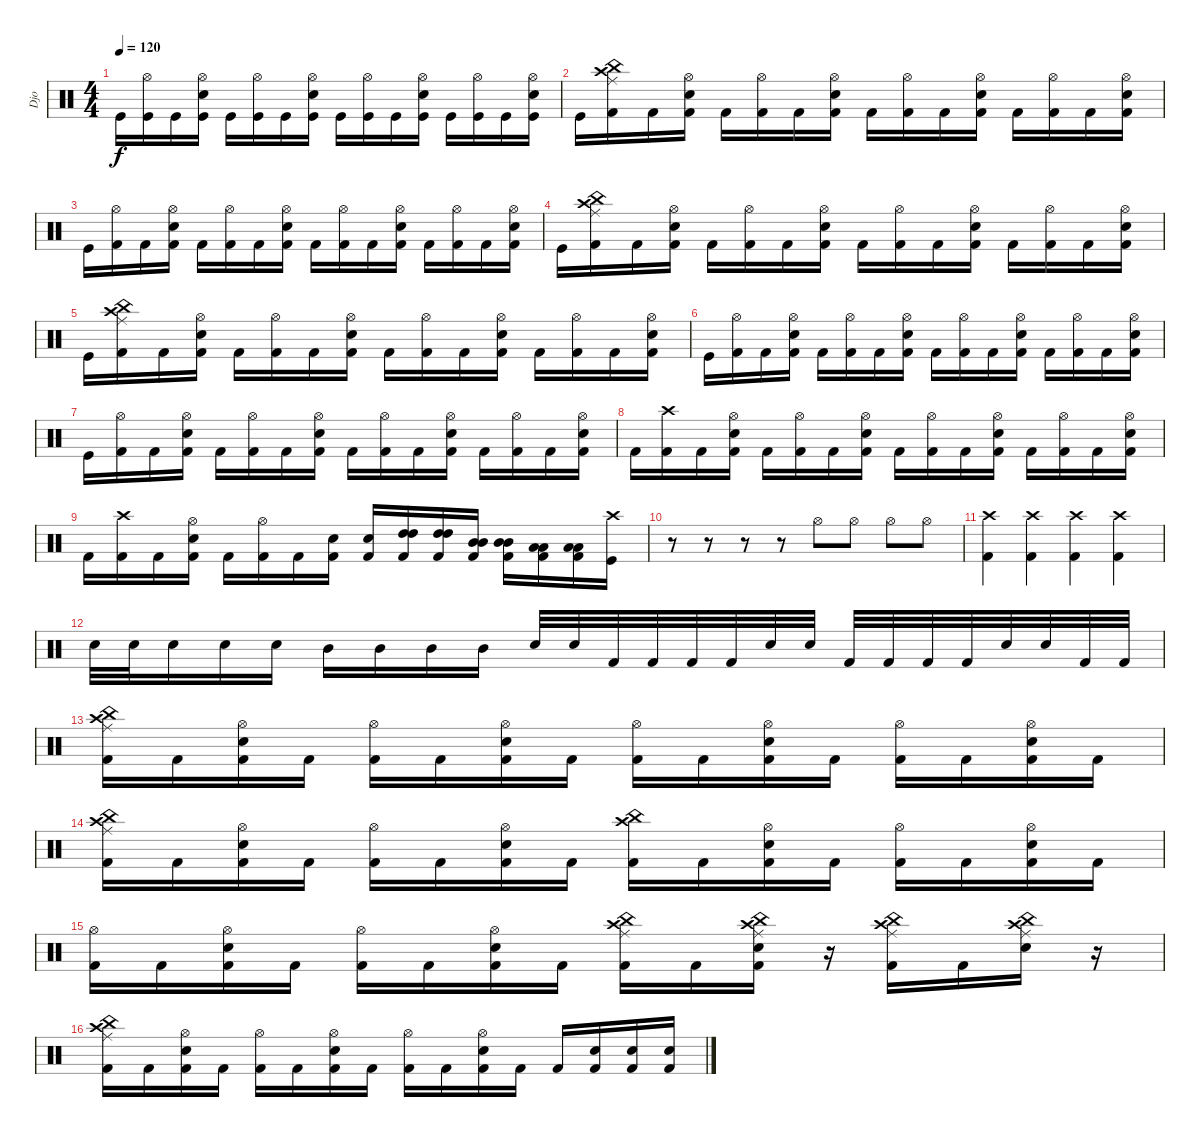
\track ("Djo" "Djo") {instrument percussion}
\staff {score}
\articulation defaults
\ts (4 4)
\tempo 120
\clef neutral
\ks c "Kick (hit)".16{dy f}
("Hi-Hat (open)" "Kick (hit)").16 "Kick (hit)".16 ("Hi-Hat (open)" "Snare (hit) 2" "Kick (hit)").16 "Kick (hit)".16 ("Hi-Hat (open)" "Kick (hit)").16 "Kick (hit)".16 ("Hi-Hat (open)" "Snare (hit) 2" "Kick (hit)").16 "Kick (hit)".16 ("Hi-Hat (open)" "Kick (hit)").16 "Kick (hit)".16 ("Hi-Hat (open)" "Snare (hit) 2" "Kick (hit)").16 "Kick (hit)".16 ("Hi-Hat (open)" "Kick (hit)").16 "Kick (hit)".16 ("Hi-Hat (open)" "Snare (hit) 2" "Kick (hit)").16 |
"Kick (hit)".16 ("Crash high (hit)" "China (hit)" "Ride (middle)" "Kick (hit) 2").16 "Kick (hit) 2".16 ("Hi-Hat (open)" "Electric Snare (hit)" "Kick (hit) 2").16 "Kick (hit) 2".16 ("Hi-Hat (open)" "Kick (hit) 2").16 "Kick (hit) 2".16 ("Hi-Hat (open)" "Electric Snare (hit)" "Kick (hit) 2").16 "Kick (hit) 2".16 ("Hi-Hat (open)" "Kick (hit) 2").16 "Kick (hit) 2".16 ("Hi-Hat (open)" "Electric Snare (hit)" "Kick (hit) 2").16 "Kick (hit) 2".16 ("Hi-Hat (open)" "Kick (hit) 2").16 "Kick (hit) 2".16 ("Hi-Hat (open)" "Electric Snare (hit)" "Kick (hit) 2").16 |
"Kick (hit)".16 ("Hi-Hat (open)" "Kick (hit) 2").16 "Kick (hit) 2".16 ("Hi-Hat (open)" "Electric Snare (hit)" "Kick (hit) 2").16 "Kick (hit) 2".16 ("Hi-Hat (open)" "Kick (hit) 2").16 "Kick (hit) 2".16 ("Hi-Hat (open)" "Electric Snare (hit)" "Kick (hit) 2").16 "Kick (hit) 2".16 ("Hi-Hat (open)" "Kick (hit) 2").16 "Kick (hit) 2".16 ("Hi-Hat (open)" "Electric Snare (hit)" "Kick (hit) 2").16 "Kick (hit) 2".16 ("Hi-Hat (open)" "Kick (hit) 2").16 "Kick (hit) 2".16 ("Hi-Hat (open)" "Electric Snare (hit)" "Kick (hit) 2").16 |
"Kick (hit)".16 ("Crash high (hit)" "China (hit)" "Ride (middle)" "Kick (hit) 2").16 "Kick (hit) 2".16 ("Hi-Hat (open)" "Electric Snare (hit)" "Kick (hit) 2").16 "Kick (hit) 2".16 ("Hi-Hat (open)" "Kick (hit) 2").16 "Kick (hit) 2".16 ("Hi-Hat (open)" "Electric Snare (hit)" "Kick (hit) 2").16 "Kick (hit) 2".16 ("Hi-Hat (open)" "Kick (hit) 2").16 "Kick (hit) 2".16 ("Hi-Hat (open)" "Electric Snare (hit)" "Kick (hit) 2").16 "Kick (hit) 2".16 ("Hi-Hat (open)" "Kick (hit) 2").16 "Kick (hit) 2".16 ("Hi-Hat (open)" "Electric Snare (hit)" "Kick (hit) 2").16 |
"Kick (hit)".16 ("Crash high (hit)" "China (hit)" "Ride (middle)" "Kick (hit) 2").16 "Kick (hit) 2".16 ("Hi-Hat (open)" "Electric Snare (hit)" "Kick (hit) 2").16 "Kick (hit) 2".16 ("Hi-Hat (open)" "Kick (hit) 2").16 "Kick (hit) 2".16 ("Hi-Hat (open)" "Electric Snare (hit)" "Kick (hit) 2").16 "Kick (hit) 2".16 ("Hi-Hat (open)" "Kick (hit) 2").16 "Kick (hit) 2".16 ("Hi-Hat (open)" "Electric Snare (hit)" "Kick (hit) 2").16 "Kick (hit) 2".16 ("Hi-Hat (open)" "Kick (hit) 2").16 "Kick (hit) 2".16 ("Hi-Hat (open)" "Electric Snare (hit)" "Kick (hit) 2").16 |
"Kick (hit)".16 ("Hi-Hat (open)" "Kick (hit) 2").16 "Kick (hit) 2".16 ("Hi-Hat (open)" "Electric Snare (hit)" "Kick (hit) 2").16 "Kick (hit) 2".16 ("Hi-Hat (open)" "Kick (hit) 2").16 "Kick (hit) 2".16 ("Hi-Hat (open)" "Electric Snare (hit)" "Kick (hit) 2").16 "Kick (hit) 2".16 ("Hi-Hat (open)" "Kick (hit) 2").16 "Kick (hit) 2".16 ("Hi-Hat (open)" "Electric Snare (hit)" "Kick (hit) 2").16 "Kick (hit) 2".16 ("Hi-Hat (open)" "Kick (hit) 2").16 "Kick (hit) 2".16 ("Hi-Hat (open)" "Electric Snare (hit)" "Kick (hit) 2").16 |
"Kick (hit)".16 ("Hi-Hat (open)" "Kick (hit) 2").16 "Kick (hit) 2".16 ("Hi-Hat (open)" "Electric Snare (hit)" "Kick (hit) 2").16 "Kick (hit) 2".16 ("Hi-Hat (open)" "Kick (hit) 2").16 "Kick (hit) 2".16 ("Hi-Hat (open)" "Electric Snare (hit)" "Kick (hit) 2").16 "Kick (hit) 2".16 ("Hi-Hat (open)" "Kick (hit) 2").16 "Kick (hit) 2".16 ("Hi-Hat (open)" "Electric Snare (hit)" "Kick (hit) 2").16 "Kick (hit) 2".16 ("Hi-Hat (open)" "Kick (hit) 2").16 "Kick (hit) 2".16 ("Hi-Hat (open)" "Electric Snare (hit)" "Kick (hit) 2").16 |
"Kick (hit) 2".16 ("Crash high (hit)" "Kick (hit) 2").16 "Kick (hit) 2".16 ("Hi-Hat (open)" "Electric Snare (hit)" "Kick (hit) 2").16 "Kick (hit) 2".16 ("Hi-Hat (open)" "Kick (hit) 2").16 "Kick (hit) 2".16 ("Hi-Hat (open)" "Electric Snare (hit)" "Kick (hit) 2").16 "Kick (hit) 2".16 ("Hi-Hat (open)" "Kick (hit) 2").16 "Kick (hit) 2".16 ("Hi-Hat (open)" "Electric Snare (hit)" "Kick (hit) 2").16 "Kick (hit) 2".16 ("Hi-Hat (open)" "Kick (hit) 2").16 "Kick (hit) 2".16 ("Hi-Hat (open)" "Electric Snare (hit)" "Kick (hit) 2").16 |
"Kick (hit) 2".16 ("Crash high (hit)" "Kick (hit) 2").16 "Kick (hit) 2".16 ("Hi-Hat (open)" "Electric Snare (hit)" "Kick (hit) 2").16 "Kick (hit) 2".16 ("Hi-Hat (open)" "Kick (hit) 2").16 "Kick (hit) 2".16 ("Electric Snare (hit)" "Kick (hit) 2").16 ("Electric Snare (hit)" "Kick (hit) 2").16 ("High Tom (hit)" "High Tom (hit)" "Kick (hit) 2").16 ("High Tom (hit)" "High Tom (hit)" "Kick (hit) 2").16 ("Mid Tom (hit)" "Mid Tom (hit)" "Kick (hit) 2").16 ("Mid Tom (hit)" "Mid Tom (hit)" "Kick (hit) 2").16 ("Low Tom (hit)" "Low Tom (hit)" "Kick (hit) 2").16 ("Low Tom (hit)" "Low Tom (hit)" "Kick (hit) 2").16 ("Crash high (hit)" "Kick (hit)").16 |
r.8 r.8 r.8 r.8 "Hi-Hat (open)".8 "Hi-Hat (open)".8 "Hi-Hat (open)".8 "Hi-Hat (open)".8 |
("Crash high (hit)" "Kick (hit) 2").4 ("Crash high (hit)" "Kick (hit) 2").4 ("Crash high (hit)" "Kick (hit) 2").4 ("Crash high (hit)" "Kick (hit) 2").4 |
"Snare (hit) 2".32 "Snare (hit) 2".32 "Snare (hit) 2".16 "Snare (hit) 2".16 "Snare (hit) 2".16 "Mid Tom (hit)".16 "Mid Tom (hit)".16 "Mid Tom (hit)".16 "Mid Tom (hit)".16 "Snare (hit) 2".32 "Snare (hit) 2".32 "Kick (hit) 2".32 "Kick (hit) 2".32 "Kick (hit) 2".32 "Kick (hit) 2".32 "Snare (hit) 2".32 "Snare (hit) 2".32 "Kick (hit) 2".32 "Kick (hit) 2".32 "Kick (hit) 2".32 "Kick (hit) 2".32 "Snare (hit) 2".32 "Snare (hit) 2".32 "Kick (hit) 2".32 "Kick (hit) 2".32 |
("China (hit)" "Crash high (hit)" "Ride (middle)" "Kick (hit) 2").16 "Kick (hit) 2".16 ("Hi-Hat (open)" "Electric Snare (hit)" "Kick (hit) 2").16 "Kick (hit) 2".16 ("Hi-Hat (open)" "Kick (hit) 2").16 "Kick (hit) 2".16 ("Hi-Hat (open)" "Electric Snare (hit)" "Kick (hit) 2").16 "Kick (hit) 2".16 ("Hi-Hat (open)" "Kick (hit) 2").16 "Kick (hit) 2".16 ("Hi-Hat (open)" "Electric Snare (hit)" "Kick (hit) 2").16 "Kick (hit) 2".16 ("Hi-Hat (open)" "Kick (hit) 2").16 "Kick (hit) 2".16 ("Hi-Hat (open)" "Electric Snare (hit)" "Kick (hit) 2").16 "Kick (hit) 2".16 |
("China (hit)" "Crash high (hit)" "Ride (middle)" "Kick (hit) 2").16 "Kick (hit) 2".16 ("Hi-Hat (open)" "Electric Snare (hit)" "Kick (hit) 2").16 "Kick (hit) 2".16 ("Hi-Hat (open)" "Kick (hit) 2").16 "Kick (hit) 2".16 ("Hi-Hat (open)" "Electric Snare (hit)" "Kick (hit) 2").16 "Kick (hit) 2".16 ("China (hit)" "Crash high (hit)" "Kick (hit) 2").16 "Kick (hit) 2".16 ("Hi-Hat (open)" "Electric Snare (hit)" "Kick (hit) 2").16 "Kick (hit) 2".16 ("Hi-Hat (open)" "Kick (hit) 2").16 "Kick (hit) 2".16 ("Hi-Hat (open)" "Electric Snare (hit)" "Kick (hit) 2").16 "Kick (hit) 2".16 |
("Hi-Hat (open)" "Kick (hit) 2").16 "Kick (hit) 2".16 ("Hi-Hat (open)" "Electric Snare (hit)" "Kick (hit) 2").16 "Kick (hit) 2".16 ("Hi-Hat (open)" "Kick (hit) 2").16 "Kick (hit) 2".16 ("Hi-Hat (open)" "Electric Snare (hit)" "Kick (hit) 2").16 "Kick (hit) 2".16 ("China (hit)" "Ride (middle)" "Crash high (hit)" "Kick (hit) 2").16 "Kick (hit) 2".16 ("China (hit)" "Ride (middle)" "Crash high (hit)" "Electric Snare (hit)" "Kick (hit) 2").16 r.16 ("China (hit)" "Ride (middle)" "Crash high (hit)" "Kick (hit) 2").16 "Kick (hit) 2".16 ("China (hit)" "Ride (middle)" "Crash high (hit)" "Electric Snare (hit)").16 r.16 |
("China (hit)" "Crash high (hit)" "Ride (middle)" "Kick (hit) 2").16 "Kick (hit) 2".16 ("Hi-Hat (open)" "Electric Snare (hit)" "Kick (hit) 2").16 "Kick (hit) 2".16 ("Hi-Hat (open)" "Kick (hit) 2").16 "Kick (hit) 2".16 ("Hi-Hat (open)" "Electric Snare (hit)" "Kick (hit) 2").16 "Kick (hit) 2".16 ("Hi-Hat (open)" "Kick (hit) 2").16 "Kick (hit) 2".16 ("Hi-Hat (open)" "Electric Snare (hit)" "Kick (hit) 2").16 "Kick (hit) 2".16 "Kick (hit) 2".16 ("Electric Snare (hit)" "Kick (hit) 2").16 ("Electric Snare (hit)" "Kick (hit) 2").16 ("Electric Snare (hit)" "Kick (hit) 2").16
